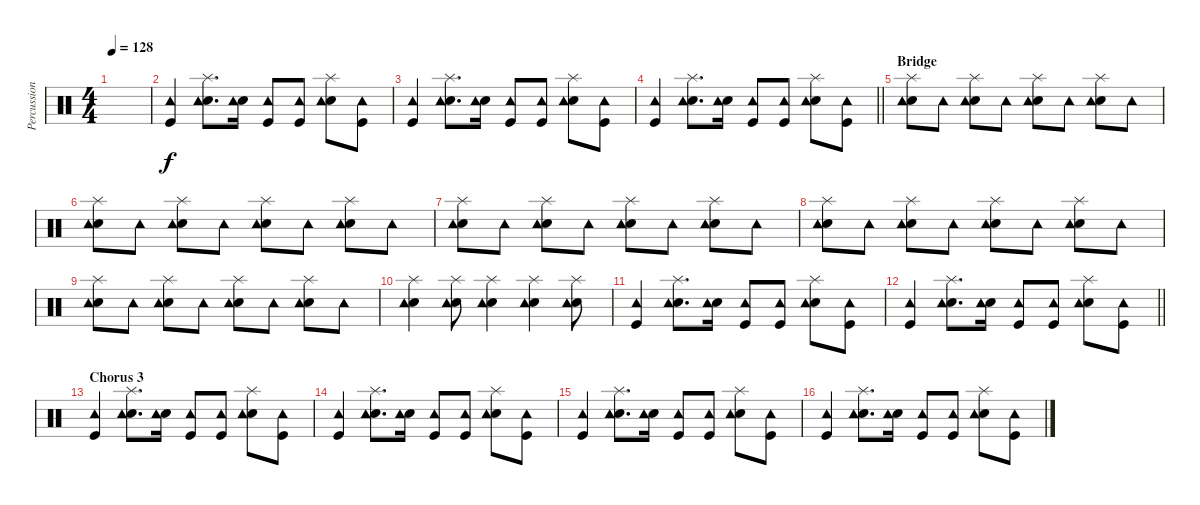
\track ("Percussions" "Percussion") {instrument percussion}
\staff {score}
\articulation defaults
\ts (4 4)
\tempo 128
\clef neutral
\ks c
|
("Kick (hit)" "Tambourine (hit)").4 ("Snare (hit) 2" "Tambourine (hit)" "Splash (hit)").8{d} ("Snare (hit) 2" "Tambourine (hit)").16 ("Kick (hit)" "Tambourine (hit)").8 ("Kick (hit)" "Tambourine (hit)").8 ("Snare (hit) 2" "Tambourine (hit)" "Splash (hit)").8 ("Kick (hit)" "Tambourine (hit)").8 |
("Kick (hit)" "Tambourine (hit)").4 ("Snare (hit) 2" "Tambourine (hit)" "Splash (hit)").8{d} ("Snare (hit) 2" "Tambourine (hit)").16 ("Kick (hit)" "Tambourine (hit)").8 ("Kick (hit)" "Tambourine (hit)").8 ("Snare (hit) 2" "Tambourine (hit)" "Splash (hit)").8 ("Kick (hit)" "Tambourine (hit)").8 |
\barLineRight lightlight
("Kick (hit)" "Tambourine (hit)").4 ("Snare (hit) 2" "Tambourine (hit)" "Splash (hit)").8{d} ("Snare (hit) 2" "Tambourine (hit)").16 ("Kick (hit)" "Tambourine (hit)").8 ("Kick (hit)" "Tambourine (hit)").8 ("Snare (hit) 2" "Tambourine (hit)" "Splash (hit)").8 ("Kick (hit)" "Tambourine (hit)").8 |
\section ("" "Bridge")
("Snare (hit) 2" "Tambourine (hit)" "Splash (hit)").8 "Tambourine (hit)".8 ("Snare (hit) 2" "Tambourine (hit)" "Splash (hit)").8 "Tambourine (hit)".8 ("Snare (hit) 2" "Tambourine (hit)" "Splash (hit)").8 "Tambourine (hit)".8 ("Snare (hit) 2" "Tambourine (hit)" "Splash (hit)").8 "Tambourine (hit)".8 |
("Snare (hit) 2" "Tambourine (hit)" "Splash (hit)").8 "Tambourine (hit)".8 ("Snare (hit) 2" "Tambourine (hit)" "Splash (hit)").8 "Tambourine (hit)".8 ("Snare (hit) 2" "Tambourine (hit)" "Splash (hit)").8 "Tambourine (hit)".8 ("Snare (hit) 2" "Tambourine (hit)" "Splash (hit)").8 "Tambourine (hit)".8 |
("Snare (hit) 2" "Tambourine (hit)" "Splash (hit)").8 "Tambourine (hit)".8 ("Snare (hit) 2" "Tambourine (hit)" "Splash (hit)").8 "Tambourine (hit)".8 ("Snare (hit) 2" "Tambourine (hit)" "Splash (hit)").8 "Tambourine (hit)".8 ("Snare (hit) 2" "Tambourine (hit)" "Splash (hit)").8 "Tambourine (hit)".8 |
("Snare (hit) 2" "Tambourine (hit)" "Splash (hit)").8 "Tambourine (hit)".8 ("Snare (hit) 2" "Tambourine (hit)" "Splash (hit)").8 "Tambourine (hit)".8 ("Snare (hit) 2" "Tambourine (hit)" "Splash (hit)").8 "Tambourine (hit)".8 ("Snare (hit) 2" "Tambourine (hit)" "Splash (hit)").8 "Tambourine (hit)".8 |
("Snare (hit) 2" "Tambourine (hit)" "Splash (hit)").8 "Tambourine (hit)".8 ("Snare (hit) 2" "Tambourine (hit)" "Splash (hit)").8 "Tambourine (hit)".8 ("Snare (hit) 2" "Tambourine (hit)" "Splash (hit)").8 "Tambourine (hit)".8 ("Snare (hit) 2" "Tambourine (hit)" "Splash (hit)").8 "Tambourine (hit)".8 |
("Snare (hit) 2" "Tambourine (hit)" "Splash (hit)").4 ("Snare (hit) 2" "Tambourine (hit)" "Splash (hit)").8 ("Snare (hit) 2" "Tambourine (hit)" "Splash (hit)").4 ("Snare (hit) 2" "Tambourine (hit)" "Splash (hit)").4 ("Snare (hit) 2" "Tambourine (hit)" "Splash (hit)").8 |
("Kick (hit)" "Tambourine (hit)").4 ("Snare (hit) 2" "Tambourine (hit)" "Splash (hit)").8{d} ("Snare (hit) 2" "Tambourine (hit)").16 ("Kick (hit)" "Tambourine (hit)").8 ("Kick (hit)" "Tambourine (hit)").8 ("Snare (hit) 2" "Tambourine (hit)" "Splash (hit)").8 ("Kick (hit)" "Tambourine (hit)").8 |
\barLineRight lightlight
("Kick (hit)" "Tambourine (hit)").4 ("Snare (hit) 2" "Tambourine (hit)" "Splash (hit)").8{d} ("Snare (hit) 2" "Tambourine (hit)").16 ("Kick (hit)" "Tambourine (hit)").8 ("Kick (hit)" "Tambourine (hit)").8 ("Snare (hit) 2" "Tambourine (hit)" "Splash (hit)").8 ("Kick (hit)" "Tambourine (hit)").8 |
\section ("" "Chorus 3")
("Kick (hit)" "Tambourine (hit)").4 ("Snare (hit) 2" "Tambourine (hit)" "Splash (hit)").8{d} ("Snare (hit) 2" "Tambourine (hit)").16 ("Kick (hit)" "Tambourine (hit)").8 ("Kick (hit)" "Tambourine (hit)").8 ("Snare (hit) 2" "Tambourine (hit)" "Splash (hit)").8 ("Kick (hit)" "Tambourine (hit)").8 |
("Kick (hit)" "Tambourine (hit)").4 ("Snare (hit) 2" "Tambourine (hit)" "Splash (hit)").8{d} ("Snare (hit) 2" "Tambourine (hit)").16 ("Kick (hit)" "Tambourine (hit)").8 ("Kick (hit)" "Tambourine (hit)").8 ("Snare (hit) 2" "Tambourine (hit)" "Splash (hit)").8 ("Kick (hit)" "Tambourine (hit)").8 |
("Kick (hit)" "Tambourine (hit)").4 ("Snare (hit) 2" "Tambourine (hit)" "Splash (hit)").8{d} ("Snare (hit) 2" "Tambourine (hit)").16 ("Kick (hit)" "Tambourine (hit)").8 ("Kick (hit)" "Tambourine (hit)").8 ("Snare (hit) 2" "Tambourine (hit)" "Splash (hit)").8 ("Kick (hit)" "Tambourine (hit)").8 |
("Kick (hit)" "Tambourine (hit)").4 ("Snare (hit) 2" "Tambourine (hit)" "Splash (hit)").8{d} ("Snare (hit) 2" "Tambourine (hit)").16 ("Kick (hit)" "Tambourine (hit)").8 ("Kick (hit)" "Tambourine (hit)").8 ("Snare (hit) 2" "Tambourine (hit)" "Splash (hit)").8 ("Kick (hit)" "Tambourine (hit)").8
